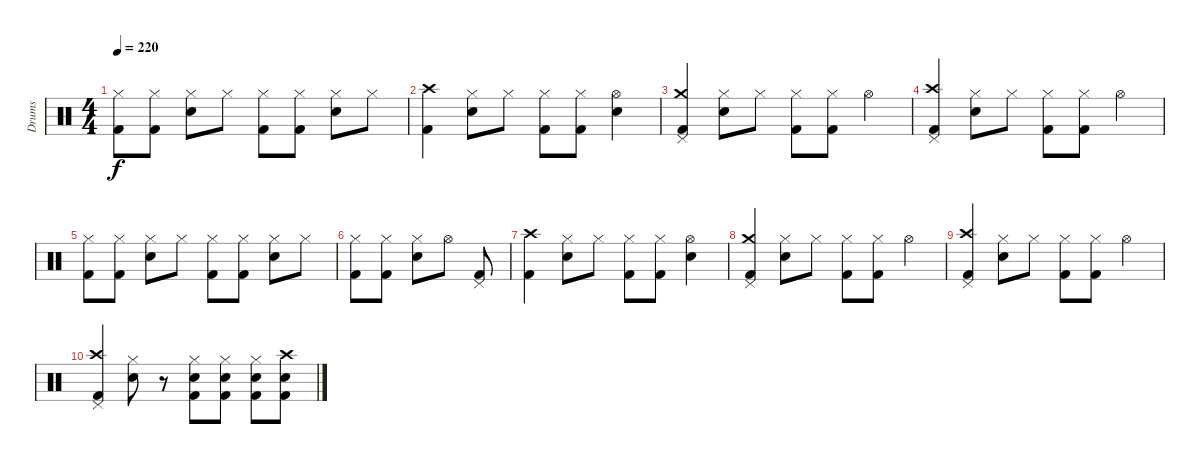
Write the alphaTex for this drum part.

\track ("Drums" "Drums") {instrument percussion}
\staff {score}
\articulation defaults
\ts (4 4)
\tempo 220
\clef neutral
\ks c
("Hi-Hat (closed)" "Kick (hit) 2").8{dy f} ("Hi-Hat (closed)" "Kick (hit) 2").8 ("Hi-Hat (closed)" "Snare (hit) 2").8 "Hi-Hat (closed)".8 ("Hi-Hat (closed)" "Kick (hit) 2").8 ("Hi-Hat (closed)" "Kick (hit) 2").8 ("Hi-Hat (closed)" "Snare (hit) 2").8 "Hi-Hat (closed)".8 |
("Crash high (hit)" "Kick (hit) 2").4 ("Hi-Hat (closed)" "Snare (hit) 2").8 "Hi-Hat (closed)".8 ("Hi-Hat (closed)" "Kick (hit) 2").8 ("Hi-Hat (closed)" "Kick (hit) 2").8 ("Hi-Hat (open)" "Snare (hit) 2").4 |
("Crash medium (hit)" "Pedal Hi-Hat (hit)" "Kick (hit) 2").4 ("Hi-Hat (closed)" "Snare (hit) 2").8 "Hi-Hat (closed)".8 ("Hi-Hat (closed)" "Kick (hit) 2").8 ("Hi-Hat (closed)" "Kick (hit) 2").8 "Hi-Hat (open)".4 |
("Crash high (hit)" "Pedal Hi-Hat (hit)" "Kick (hit) 2").4 ("Hi-Hat (closed)" "Snare (hit) 2").8 "Hi-Hat (closed)".8 ("Hi-Hat (closed)" "Kick (hit) 2").8 ("Hi-Hat (closed)" "Kick (hit) 2").8 "Hi-Hat (open)".4 |
("Hi-Hat (closed)" "Kick (hit) 2").8 ("Hi-Hat (closed)" "Kick (hit) 2").8 ("Hi-Hat (closed)" "Snare (hit) 2").8 "Hi-Hat (closed)".8 ("Hi-Hat (closed)" "Kick (hit) 2").8 ("Hi-Hat (closed)" "Kick (hit) 2").8 ("Hi-Hat (closed)" "Snare (hit) 2").8 "Hi-Hat (closed)".8 |
("Hi-Hat (closed)" "Kick (hit) 2").8 ("Hi-Hat (closed)" "Kick (hit) 2").8 ("Hi-Hat (closed)" "Snare (hit) 2").8 "Hi-Hat (open)".8 ("Pedal Hi-Hat (hit)" "Kick (hit) 2").8 |
("Crash high (hit)" "Kick (hit) 2").4 ("Hi-Hat (closed)" "Snare (hit) 2").8 "Hi-Hat (closed)".8 ("Hi-Hat (closed)" "Kick (hit) 2").8 ("Hi-Hat (closed)" "Kick (hit) 2").8 ("Hi-Hat (open)" "Snare (hit) 2").4 |
("Crash medium (hit)" "Pedal Hi-Hat (hit)" "Kick (hit) 2").4 ("Hi-Hat (closed)" "Snare (hit) 2").8 "Hi-Hat (closed)".8 ("Hi-Hat (closed)" "Kick (hit) 2").8 ("Hi-Hat (closed)" "Kick (hit) 2").8 "Hi-Hat (open)".4 |
("Crash high (hit)" "Pedal Hi-Hat (hit)" "Kick (hit) 2").4 ("Hi-Hat (closed)" "Snare (hit) 2").8 "Hi-Hat (closed)".8 ("Hi-Hat (closed)" "Kick (hit) 2").8 ("Hi-Hat (closed)" "Kick (hit) 2").8 "Hi-Hat (open)".4 |
("Crash high (hit)" "Pedal Hi-Hat (hit)" "Kick (hit) 2").4 ("Hi-Hat (closed)" "Snare (hit) 2").8 r.8 ("Hi-Hat (closed)" "Snare (hit) 2" "Kick (hit) 2").8 ("Hi-Hat (closed)" "Snare (hit) 2" "Kick (hit) 2").8 ("Hi-Hat (closed)" "Snare (hit) 2" "Kick (hit) 2").8 ("Crash high (hit)" "Snare (hit) 2" "Kick (hit) 2").8
